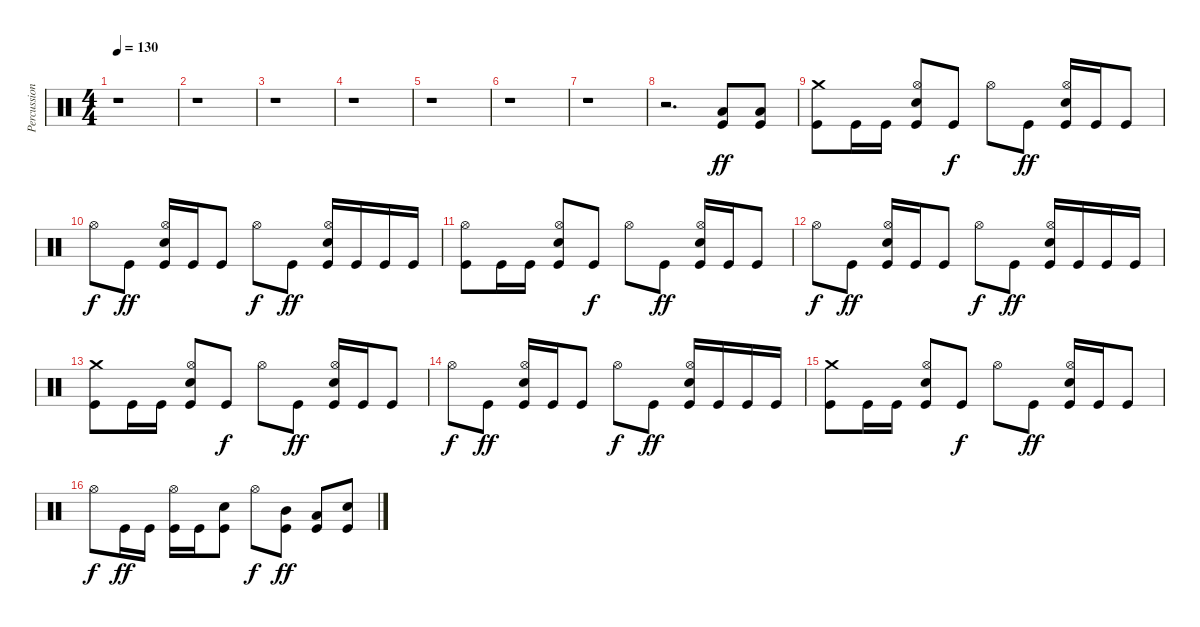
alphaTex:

\track ("Percussion" "Percussion") {instrument percussion}
\staff {score}
\articulation defaults
\ts (4 4)
\tempo 130
\clef neutral
\ks c
r.1{dy f} |
r.1 |
r.1 |
r.1 |
r.1 |
r.1 |
r.1 |
r.2{d} ("Low Tom (hit)" "Kick (hit)").8{dy ff} ("Low Tom (hit)" "Kick (hit)").8 |
("Crash medium (hit)" "Kick (hit)").8 "Kick (hit)".16 "Kick (hit)".16 ("Hi-Hat (open)" "Snare (hit) 2" "Kick (hit)").8 "Kick (hit)".8{dy f} "Hi-Hat (open)".8 "Kick (hit)".8{dy ff} ("Hi-Hat (open)" "Snare (hit) 2" "Kick (hit)").16 "Kick (hit)".16 "Kick (hit)".8 |
"Hi-Hat (open)".8{dy f} "Kick (hit)".8{dy ff} ("Hi-Hat (open)" "Snare (hit) 2" "Kick (hit)").16 "Kick (hit)".16 "Kick (hit)".8 "Hi-Hat (open)".8{dy f} "Kick (hit)".8{dy ff} ("Hi-Hat (open)" "Snare (hit) 2" "Kick (hit)").16 "Kick (hit)".16 "Kick (hit)".16 "Kick (hit)".16 |
("Hi-Hat (open)" "Kick (hit)").8 "Kick (hit)".16 "Kick (hit)".16 ("Hi-Hat (open)" "Snare (hit) 2" "Kick (hit)").8 "Kick (hit)".8{dy f} "Hi-Hat (open)".8 "Kick (hit)".8{dy ff} ("Hi-Hat (open)" "Snare (hit) 2" "Kick (hit)").16 "Kick (hit)".16 "Kick (hit)".8 |
"Hi-Hat (open)".8{dy f} "Kick (hit)".8{dy ff} ("Hi-Hat (open)" "Snare (hit) 2" "Kick (hit)").16 "Kick (hit)".16 "Kick (hit)".8 "Hi-Hat (open)".8{dy f} "Kick (hit)".8{dy ff} ("Hi-Hat (open)" "Snare (hit) 2" "Kick (hit)").16 "Kick (hit)".16 "Kick (hit)".16 "Kick (hit)".16 |
("Crash medium (hit)" "Kick (hit)").8 "Kick (hit)".16 "Kick (hit)".16 ("Hi-Hat (open)" "Snare (hit) 2" "Kick (hit)").8 "Kick (hit)".8{dy f} "Hi-Hat (open)".8 "Kick (hit)".8{dy ff} ("Hi-Hat (open)" "Snare (hit) 2" "Kick (hit)").16 "Kick (hit)".16 "Kick (hit)".8 |
"Hi-Hat (open)".8{dy f} "Kick (hit)".8{dy ff} ("Hi-Hat (open)" "Snare (hit) 2" "Kick (hit)").16 "Kick (hit)".16 "Kick (hit)".8 "Hi-Hat (open)".8{dy f} "Kick (hit)".8{dy ff} ("Hi-Hat (open)" "Snare (hit) 2" "Kick (hit)").16 "Kick (hit)".16 "Kick (hit)".16 "Kick (hit)".16 |
("Crash medium (hit)" "Kick (hit)").8 "Kick (hit)".16 "Kick (hit)".16 ("Hi-Hat (open)" "Snare (hit) 2" "Kick (hit)").8 "Kick (hit)".8{dy f} "Hi-Hat (open)".8 "Kick (hit)".8{dy ff} ("Hi-Hat (open)" "Snare (hit) 2" "Kick (hit)").16 "Kick (hit)".16 "Kick (hit)".8 |
"Hi-Hat (open)".8{dy f} "Kick (hit)".16{dy ff} "Kick (hit)".16 ("Hi-Hat (open)" "Kick (hit)").16 "Kick (hit)".16 ("Snare (hit) 2" "Kick (hit)").8 "Hi-Hat (open)".8{dy f} ("Mid Tom (hit)"{tr (47 16)} "Kick (hit)").8{dy ff} ("Low Tom (hit)"{tr (45 16)} "Kick (hit)").8 ("Snare (hit) 2" "Kick (hit)").8
